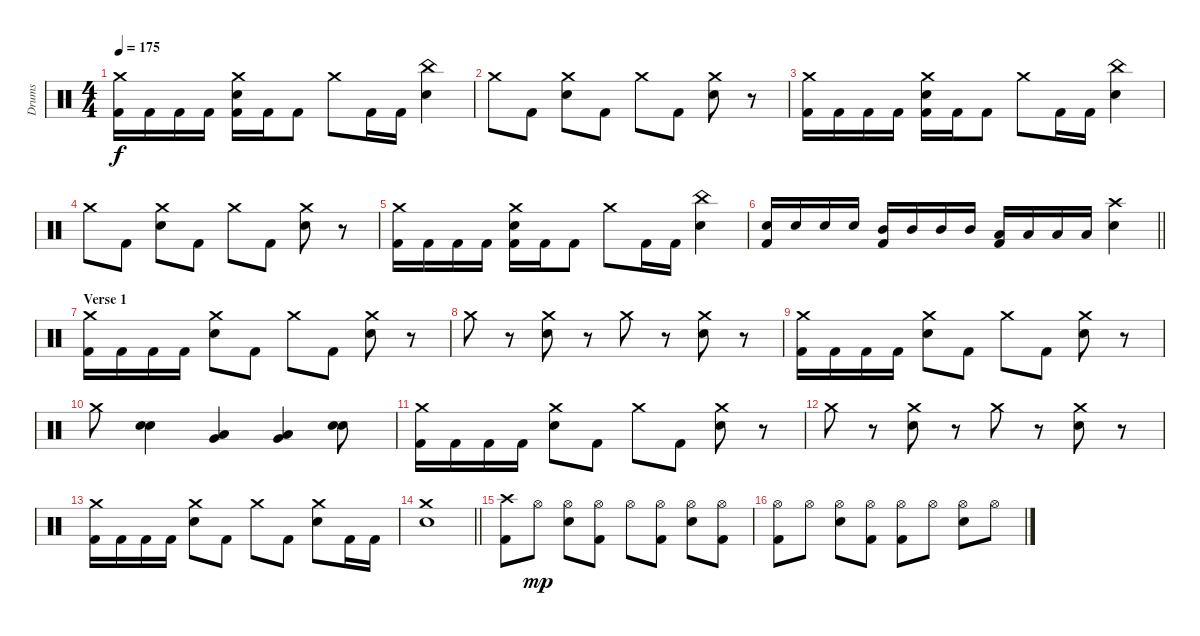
\track ("Drums" "Drums") {instrument percussion}
\staff {score}
\articulation defaults
\ts (4 4)
\tempo 175
\clef neutral
\ks c
("Crash medium (hit)" "Kick (hit) 2").16{dy f} "Kick (hit) 2".16 "Kick (hit) 2".16 "Kick (hit) 2".16 ("Crash medium (hit)" "Electric Snare (hit)" "Kick (hit) 2").16 "Kick (hit) 2".16 "Kick (hit) 2".8 "Crash medium (hit)".8 "Kick (hit) 2".16 "Kick (hit) 2".16 ("China (hit)" "Electric Snare (hit)").4 |
"Crash medium (hit)".8 "Kick (hit) 2".8 ("Crash medium (hit)" "Electric Snare (hit)").8 "Kick (hit) 2".8 "Crash medium (hit)".8 "Kick (hit) 2".8 ("Crash medium (hit)" "Electric Snare (hit)").8 r.8 |
("Crash medium (hit)" "Kick (hit) 2").16 "Kick (hit) 2".16 "Kick (hit) 2".16 "Kick (hit) 2".16 ("Crash medium (hit)" "Electric Snare (hit)" "Kick (hit) 2").16 "Kick (hit) 2".16 "Kick (hit) 2".8 "Crash medium (hit)".8 "Kick (hit) 2".16 "Kick (hit) 2".16 ("China (hit)" "Electric Snare (hit)").4 |
"Crash medium (hit)".8 "Kick (hit) 2".8 ("Crash medium (hit)" "Electric Snare (hit)").8 "Kick (hit) 2".8 "Crash medium (hit)".8 "Kick (hit) 2".8 ("Crash medium (hit)" "Electric Snare (hit)").8 r.8 |
("Crash medium (hit)" "Kick (hit) 2").16 "Kick (hit) 2".16 "Kick (hit) 2".16 "Kick (hit) 2".16 ("Crash medium (hit)" "Electric Snare (hit)" "Kick (hit) 2").16 "Kick (hit) 2".16 "Kick (hit) 2".8 "Crash medium (hit)".8 "Kick (hit) 2".16 "Kick (hit) 2".16 ("China (hit)" "Electric Snare (hit)").4 |
\barLineRight lightlight
("Electric Snare (hit)" "Kick (hit) 2").16 "Electric Snare (hit)".16 "Electric Snare (hit)".16 "Electric Snare (hit)".16 ("Mid Tom (hit)" "Kick (hit) 2").16 "Mid Tom (hit)".16 "Mid Tom (hit)".16 "Mid Tom (hit)".16 ("Low Tom (hit)" "Kick (hit) 2").16 "Low Tom (hit)".16 "Low Tom (hit)".16 "Low Tom (hit)".16 ("Crash high (hit)" "Electric Snare (hit)").4 |
\section ("" "Verse 1")
("Crash medium (hit)" "Kick (hit) 2").16 "Kick (hit) 2".16 "Kick (hit) 2".16 "Kick (hit) 2".16 ("Crash medium (hit)" "Electric Snare (hit)").8 "Kick (hit) 2".8 "Crash medium (hit)".8 "Kick (hit) 2".8 ("Crash medium (hit)" "Electric Snare (hit)").8 r.8 |
"Crash medium (hit)".8 r.8 ("Crash medium (hit)" "Electric Snare (hit)").8 r.8 "Crash medium (hit)".8 r.8 ("Crash medium (hit)" "Electric Snare (hit)").8 r.8 |
("Crash medium (hit)" "Kick (hit) 2").16 "Kick (hit) 2".16 "Kick (hit) 2".16 "Kick (hit) 2".16 ("Crash medium (hit)" "Electric Snare (hit)").8 "Kick (hit) 2".8 "Crash medium (hit)".8 "Kick (hit) 2".8 ("Crash medium (hit)" "Electric Snare (hit)").8 r.8 |
"Crash medium (hit)".8 ("Electric Snare (hit)" "Electric Snare (hit)").4 ("Low Tom (hit)" "Very Low Tom (hit)").4 ("Very Low Tom (hit)" "Low Floor Tom (hit)").4 ("Electric Snare (hit)" "Electric Snare (hit)").8 |
("Crash medium (hit)" "Kick (hit) 2").16 "Kick (hit) 2".16 "Kick (hit) 2".16 "Kick (hit) 2".16 ("Crash medium (hit)" "Electric Snare (hit)").8 "Kick (hit) 2".8 "Crash medium (hit)".8 "Kick (hit) 2".8 ("Crash medium (hit)" "Electric Snare (hit)").8 r.8 |
"Crash medium (hit)".8 r.8 ("Crash medium (hit)" "Electric Snare (hit)").8 r.8 "Crash medium (hit)".8 r.8 ("Crash medium (hit)" "Electric Snare (hit)").8 r.8 |
("Crash medium (hit)" "Kick (hit) 2").16 "Kick (hit) 2".16 "Kick (hit) 2".16 "Kick (hit) 2".16 ("Crash medium (hit)" "Electric Snare (hit)").8 "Kick (hit) 2".8 "Crash medium (hit)".8 "Kick (hit) 2".8 ("Crash medium (hit)" "Electric Snare (hit)").8 "Kick (hit) 2".16 "Kick (hit) 2".16 |
\barLineRight lightlight
("Crash medium (hit)" "Electric Snare (hit)").1 |
\section ("" "")
("Crash high (hit)" "Kick (hit) 2").8 "Hi-Hat (open)".8{dy mp} ("Hi-Hat (open)" "Electric Snare (hit)").8 ("Hi-Hat (open)" "Kick (hit) 2").8 "Hi-Hat (open)".8 ("Hi-Hat (open)" "Kick (hit) 2").8 ("Hi-Hat (open)" "Electric Snare (hit)").8 ("Hi-Hat (open)" "Kick (hit) 2").8 |
("Hi-Hat (open)" "Kick (hit) 2").8 "Hi-Hat (open)".8 ("Hi-Hat (open)" "Electric Snare (hit)").8 ("Hi-Hat (open)" "Kick (hit) 2").8 ("Hi-Hat (open)" "Kick (hit) 2").8 "Hi-Hat (open)".8 ("Hi-Hat (open)" "Electric Snare (hit)").8 "Hi-Hat (open)".8
